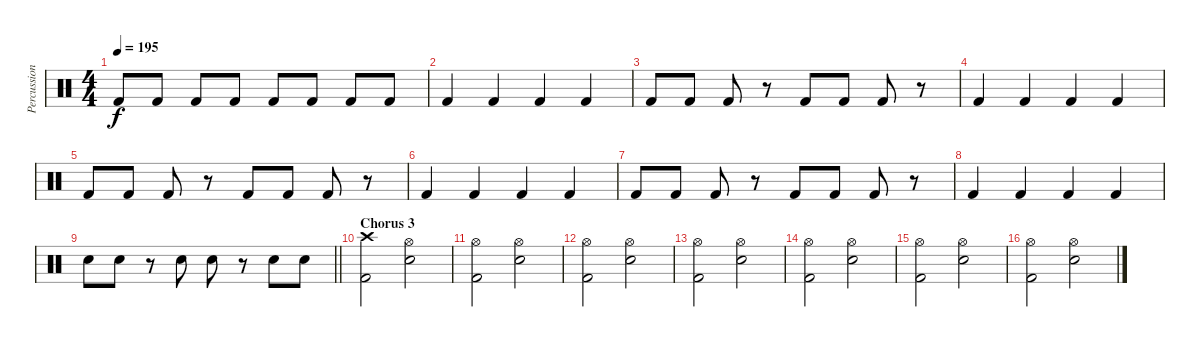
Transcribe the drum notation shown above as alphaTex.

\track ("Percussion" "Percussion") {instrument percussion}
\staff {score}
\articulation defaults
\ts (4 4)
\tempo 195
\clef neutral
\ks c "Kick (hit) 2".8{dy f} "Kick (hit) 2".8 "Kick (hit) 2".8 "Kick (hit) 2".8 "Kick (hit) 2".8 "Kick (hit) 2".8 "Kick (hit) 2".8 "Kick (hit) 2".8
|
"Kick (hit) 2".4 "Kick (hit) 2".4 "Kick (hit) 2".4 "Kick (hit) 2".4 |
"Kick (hit) 2".8 "Kick (hit) 2".8 "Kick (hit) 2".8 r.8 "Kick (hit) 2".8 "Kick (hit) 2".8 "Kick (hit) 2".8 r.8 |
"Kick (hit) 2".4 "Kick (hit) 2".4 "Kick (hit) 2".4 "Kick (hit) 2".4 |
"Kick (hit) 2".8 "Kick (hit) 2".8 "Kick (hit) 2".8 r.8 "Kick (hit) 2".8 "Kick (hit) 2".8 "Kick (hit) 2".8 r.8 |
"Kick (hit) 2".4 "Kick (hit) 2".4 "Kick (hit) 2".4 "Kick (hit) 2".4 |
"Kick (hit) 2".8 "Kick (hit) 2".8 "Kick (hit) 2".8 r.8 "Kick (hit) 2".8 "Kick (hit) 2".8 "Kick (hit) 2".8 r.8 |
"Kick (hit) 2".4 "Kick (hit) 2".4 "Kick (hit) 2".4 "Kick (hit) 2".4 |
\barLineRight lightlight "Snare (hit) 2".8 "Snare (hit) 2".8
r.8 "Snare (hit) 2".8 "Snare (hit) 2".8 r.8 "Snare (hit) 2".8 "Snare (hit) 2".8 |
\section ("" "Chorus 3")
("Crash high (hit)" "Kick (hit) 2").2 ("Hi-Hat (open)" "Snare (hit) 2").2 |
("Hi-Hat (open)" "Kick (hit) 2").2 ("Hi-Hat (open)" "Snare (hit) 2").2 |
("Hi-Hat (open)" "Kick (hit) 2").2 ("Hi-Hat (open)" "Snare (hit) 2").2 |
("Hi-Hat (open)" "Kick (hit) 2").2 ("Hi-Hat (open)" "Snare (hit) 2").2 |
("Hi-Hat (open)" "Kick (hit) 2").2 ("Hi-Hat (open)" "Snare (hit) 2").2 |
("Hi-Hat (open)" "Kick (hit) 2").2 ("Hi-Hat (open)" "Snare (hit) 2").2 |
("Hi-Hat (open)" "Kick (hit) 2").2 ("Hi-Hat (open)" "Snare (hit) 2").2
